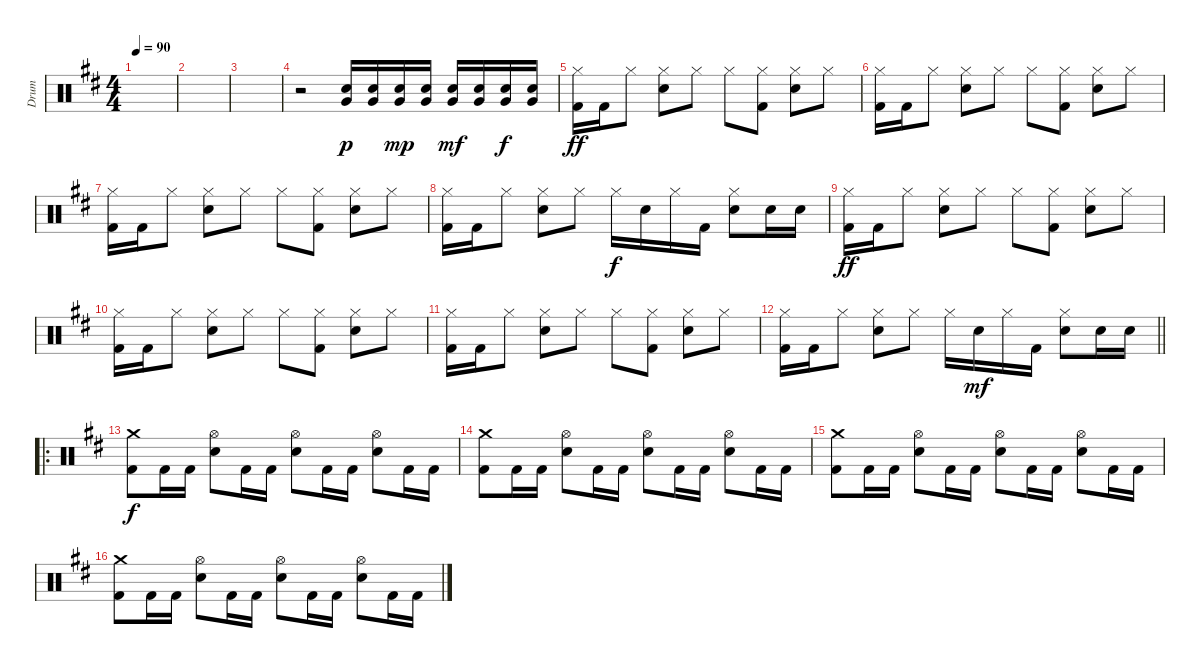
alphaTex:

\track ("Drum" "Drum") {instrument percussion}
\staff {score}
\articulation defaults
\ts (4 4)
\tempo 90
\clef neutral
\ks d
|
|
|
r.2 ("Very Low Tom (hit)" "Snare (hit) 2").16{dy p} ("Very Low Tom (hit)" "Snare (hit) 2").16 ("Very Low Tom (hit)" "Snare (hit) 2").16{dy mp} ("Very Low Tom (hit)" "Snare (hit) 2").16 ("Very Low Tom (hit)" "Snare (hit) 2").16{dy mf} ("Very Low Tom (hit)" "Snare (hit) 2").16 ("Very Low Tom (hit)" "Snare (hit) 2").16{dy f} ("Very Low Tom (hit)" "Snare (hit) 2").16 |
("Kick (hit) 2" "Hi-Hat (closed)").16{dy ff} "Kick (hit) 2".16 "Hi-Hat (closed)".8 ("Snare (hit) 2" "Hi-Hat (closed)").8 "Hi-Hat (closed)".8 "Hi-Hat (closed)".8 ("Kick (hit) 2" "Hi-Hat (closed)").8 ("Hi-Hat (closed)" "Snare (hit) 2").8 "Hi-Hat (closed)".8 |
("Kick (hit) 2" "Hi-Hat (closed)").16 "Kick (hit) 2".16 "Hi-Hat (closed)".8 ("Snare (hit) 2" "Hi-Hat (closed)").8 "Hi-Hat (closed)".8 "Hi-Hat (closed)".8 ("Kick (hit) 2" "Hi-Hat (closed)").8 ("Hi-Hat (closed)" "Snare (hit) 2").8 "Hi-Hat (closed)".8 |
("Kick (hit) 2" "Hi-Hat (closed)").16 "Kick (hit) 2".16 "Hi-Hat (closed)".8 ("Snare (hit) 2" "Hi-Hat (closed)").8 "Hi-Hat (closed)".8 "Hi-Hat (closed)".8 ("Kick (hit) 2" "Hi-Hat (closed)").8 ("Hi-Hat (closed)" "Snare (hit) 2").8 "Hi-Hat (closed)".8 |
("Kick (hit) 2" "Hi-Hat (closed)").16 "Kick (hit) 2".16 "Hi-Hat (closed)".8 ("Snare (hit) 2" "Hi-Hat (closed)").8 "Hi-Hat (closed)".8 "Hi-Hat (closed)".16{dy f} "Snare (hit) 2".16 "Hi-Hat (closed)".16 "Kick (hit) 2".16 ("Hi-Hat (closed)" "Snare (hit) 2").8 "Snare (hit) 2".16 "Snare (hit) 2".16 |
("Kick (hit) 2" "Hi-Hat (closed)").16{dy ff} "Kick (hit) 2".16 "Hi-Hat (closed)".8 ("Snare (hit) 2" "Hi-Hat (closed)").8 "Hi-Hat (closed)".8 "Hi-Hat (closed)".8 ("Kick (hit) 2" "Hi-Hat (closed)").8 ("Hi-Hat (closed)" "Snare (hit) 2").8 "Hi-Hat (closed)".8 |
("Kick (hit) 2" "Hi-Hat (closed)").16 "Kick (hit) 2".16 "Hi-Hat (closed)".8 ("Snare (hit) 2" "Hi-Hat (closed)").8 "Hi-Hat (closed)".8 "Hi-Hat (closed)".8 ("Kick (hit) 2" "Hi-Hat (closed)").8 ("Hi-Hat (closed)" "Snare (hit) 2").8 "Hi-Hat (closed)".8 |
("Kick (hit) 2" "Hi-Hat (closed)").16 "Kick (hit) 2".16 "Hi-Hat (closed)".8 ("Snare (hit) 2" "Hi-Hat (closed)").8 "Hi-Hat (closed)".8 "Hi-Hat (closed)".8 ("Kick (hit) 2" "Hi-Hat (closed)").8 ("Hi-Hat (closed)" "Snare (hit) 2").8 "Hi-Hat (closed)".8 |
\barLineRight lightlight
("Kick (hit) 2" "Hi-Hat (closed)").16 "Kick (hit) 2".16 "Hi-Hat (closed)".8 ("Snare (hit) 2" "Hi-Hat (closed)").8 "Hi-Hat (closed)".8 "Hi-Hat (closed)".16 "Snare (hit) 2".16{dy mf} "Hi-Hat (closed)".16 "Kick (hit) 2".16 ("Hi-Hat (closed)" "Snare (hit) 2").8 "Snare (hit) 2".16 "Snare (hit) 2".16 |
\ro
("Kick (hit) 2" "Crash medium (hit)").8{dy f} "Kick (hit) 2".16 "Kick (hit) 2".16 ("Snare (hit) 2" "Hi-Hat (open)").8 "Kick (hit) 2".16 "Kick (hit) 2".16 ("Snare (hit) 2" "Hi-Hat (open)").8 "Kick (hit) 2".16 "Kick (hit) 2".16 ("Snare (hit) 2" "Hi-Hat (open)").8 "Kick (hit) 2".16 "Kick (hit) 2".16 |
("Kick (hit) 2" "Crash medium (hit)").8 "Kick (hit) 2".16 "Kick (hit) 2".16 ("Snare (hit) 2" "Hi-Hat (open)").8 "Kick (hit) 2".16 "Kick (hit) 2".16 ("Snare (hit) 2" "Hi-Hat (open)").8 "Kick (hit) 2".16 "Kick (hit) 2".16 ("Snare (hit) 2" "Hi-Hat (open)").8 "Kick (hit) 2".16 "Kick (hit) 2".16 |
("Kick (hit) 2" "Crash medium (hit)").8 "Kick (hit) 2".16 "Kick (hit) 2".16 ("Snare (hit) 2" "Hi-Hat (open)").8 "Kick (hit) 2".16 "Kick (hit) 2".16 ("Snare (hit) 2" "Hi-Hat (open)").8 "Kick (hit) 2".16 "Kick (hit) 2".16 ("Snare (hit) 2" "Hi-Hat (open)").8 "Kick (hit) 2".16 "Kick (hit) 2".16 |
("Kick (hit) 2" "Crash medium (hit)").8 "Kick (hit) 2".16 "Kick (hit) 2".16 ("Snare (hit) 2" "Hi-Hat (open)").8 "Kick (hit) 2".16 "Kick (hit) 2".16 ("Snare (hit) 2" "Hi-Hat (open)").8 "Kick (hit) 2".16 "Kick (hit) 2".16 ("Snare (hit) 2" "Hi-Hat (open)").8 "Kick (hit) 2".16 "Kick (hit) 2".16
